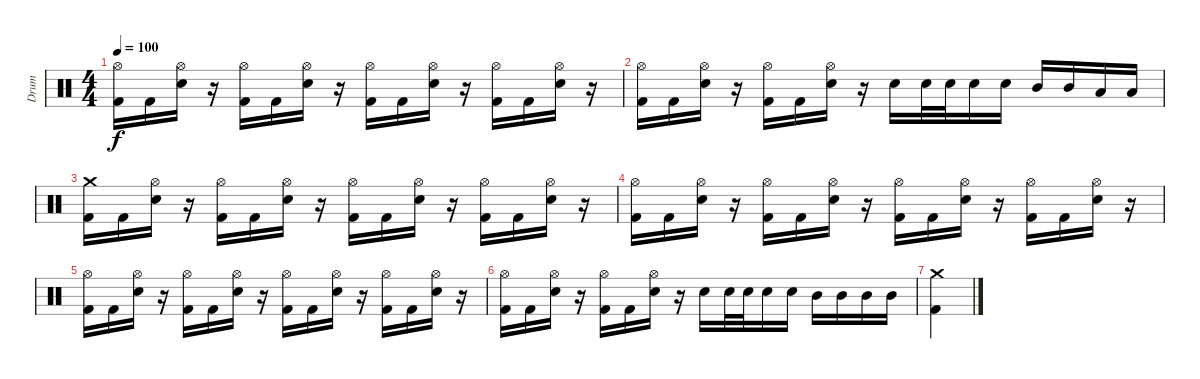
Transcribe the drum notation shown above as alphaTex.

\track ("Drum" "Drum") {instrument percussion}
\staff {score}
\articulation defaults
\ts (4 4)
\tempo 100
\clef neutral
\ks c
("Hi-Hat (open)" "Kick (hit) 2").16{dy f} "Kick (hit) 2".16 ("Hi-Hat (open)" "Electric Snare (hit)").16 r.16 ("Hi-Hat (open)" "Kick (hit) 2").16 "Kick (hit) 2".16 ("Hi-Hat (open)" "Electric Snare (hit)").16 r.16 ("Hi-Hat (open)" "Kick (hit) 2").16 "Kick (hit) 2".16 ("Hi-Hat (open)" "Electric Snare (hit)").16 r.16 ("Hi-Hat (open)" "Kick (hit) 2").16 "Kick (hit) 2".16 ("Hi-Hat (open)" "Electric Snare (hit)").16 r.16 |
("Hi-Hat (open)" "Kick (hit) 2").16 "Kick (hit) 2".16 ("Hi-Hat (open)" "Electric Snare (hit)").16 r.16 ("Hi-Hat (open)" "Kick (hit) 2").16 "Kick (hit) 2".16 ("Hi-Hat (open)" "Electric Snare (hit)").16 r.16 "Electric Snare (hit)".16 "Electric Snare (hit)".32 "Electric Snare (hit)".32 "Electric Snare (hit)".16 "Electric Snare (hit)".16 "Mid Tom (hit)".16 "Mid Tom (hit)".16 "Low Floor Tom (hit)".16 "Low Floor Tom (hit)".16 |
("Crash medium (hit)" "Kick (hit) 2").16 "Kick (hit) 2".16 ("Hi-Hat (open)" "Electric Snare (hit)").16 r.16 ("Hi-Hat (open)" "Kick (hit) 2").16 "Kick (hit) 2".16 ("Hi-Hat (open)" "Electric Snare (hit)").16 r.16 ("Hi-Hat (open)" "Kick (hit) 2").16 "Kick (hit) 2".16 ("Hi-Hat (open)" "Electric Snare (hit)").16 r.16 ("Hi-Hat (open)" "Kick (hit) 2").16 "Kick (hit) 2".16 ("Hi-Hat (open)" "Electric Snare (hit)").16 r.16 |
("Hi-Hat (open)" "Kick (hit) 2").16 "Kick (hit) 2".16 ("Hi-Hat (open)" "Electric Snare (hit)").16 r.16 ("Hi-Hat (open)" "Kick (hit) 2").16 "Kick (hit) 2".16 ("Hi-Hat (open)" "Electric Snare (hit)").16 r.16 ("Hi-Hat (open)" "Kick (hit) 2").16 "Kick (hit) 2".16 ("Hi-Hat (open)" "Electric Snare (hit)").16 r.16 ("Hi-Hat (open)" "Kick (hit) 2").16 "Kick (hit) 2".16 ("Hi-Hat (open)" "Electric Snare (hit)").16 r.16 |
("Hi-Hat (open)" "Kick (hit) 2").16 "Kick (hit) 2".16 ("Hi-Hat (open)" "Electric Snare (hit)").16 r.16 ("Hi-Hat (open)" "Kick (hit) 2").16 "Kick (hit) 2".16 ("Hi-Hat (open)" "Electric Snare (hit)").16 r.16 ("Hi-Hat (open)" "Kick (hit) 2").16 "Kick (hit) 2".16 ("Hi-Hat (open)" "Electric Snare (hit)").16 r.16 ("Hi-Hat (open)" "Kick (hit) 2").16 "Kick (hit) 2".16 ("Hi-Hat (open)" "Electric Snare (hit)").16 r.16 |
("Hi-Hat (open)" "Kick (hit) 2").16 "Kick (hit) 2".16 ("Hi-Hat (open)" "Electric Snare (hit)").16 r.16 ("Hi-Hat (open)" "Kick (hit) 2").16 "Kick (hit) 2".16 ("Hi-Hat (open)" "Electric Snare (hit)").16 r.16 "Electric Snare (hit)".16 "Electric Snare (hit)".32 "Electric Snare (hit)".32 "Electric Snare (hit)".16 "Electric Snare (hit)".16 "Mid Tom (hit)".16 "Mid Tom (hit)".16 "Mid Tom (hit)".16 "Mid Tom (hit)".16 |
("Crash medium (hit)" "Kick (hit) 2").4
